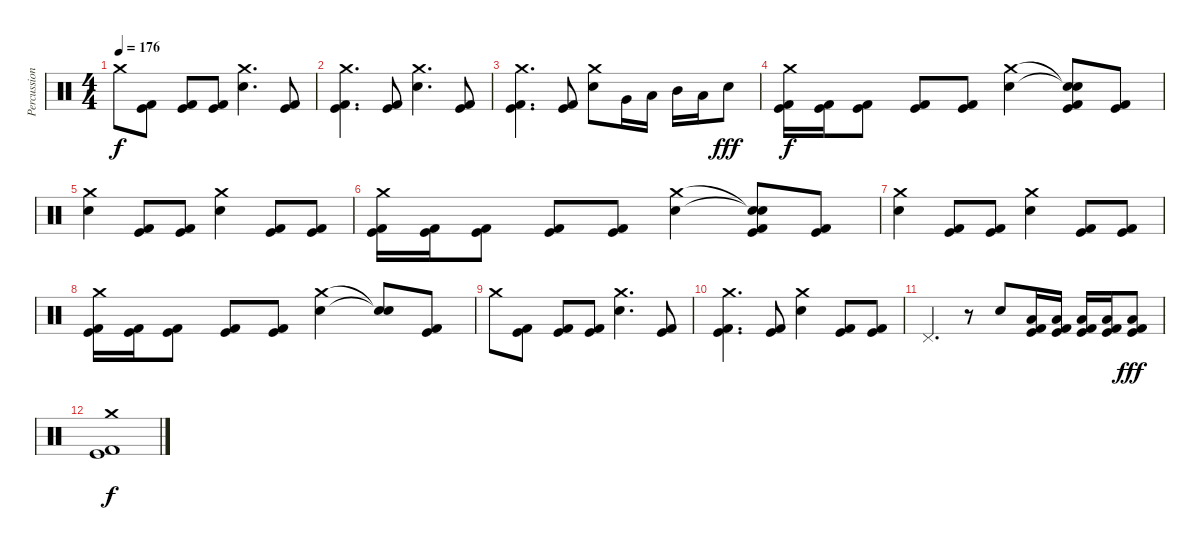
\track ("Percussions" "Percussion") {instrument percussion}
\staff {score}
\articulation defaults
\ts (4 4)
\tempo 176
\clef neutral
\ks c "Crash medium (hit)".8{dy f}
("Kick (hit)" "Kick (hit) 2").8 ("Kick (hit)" "Kick (hit) 2").8 ("Kick (hit)" "Kick (hit) 2").8 ("Crash medium (hit)" "Electric Snare (hit)").4{d} ("Kick (hit)" "Kick (hit) 2").8 |
("Crash medium (hit)" "Kick (hit)" "Kick (hit) 2").4{d} ("Kick (hit)" "Kick (hit) 2").8 ("Crash medium (hit)" "Electric Snare (hit)").4{d} ("Kick (hit)" "Kick (hit) 2").8 |
("Crash medium (hit)" "Kick (hit)" "Kick (hit) 2").4{d} ("Kick (hit)" "Kick (hit) 2").8 ("Crash medium (hit)" "Electric Snare (hit)").8 "Very Low Tom (hit)".16 "Low Tom (hit)".16 "Mid Tom (hit)".16 "Low Tom (hit)".16 "Electric Snare (hit)".8{dy fff} |
("Crash medium (hit)" "Kick (hit)" "Kick (hit) 2").16{dy f} ("Kick (hit)" "Kick (hit) 2").16 ("Kick (hit)" "Kick (hit) 2").8 ("Kick (hit)" "Kick (hit) 2").8 ("Kick (hit)" "Kick (hit) 2").8 ("Crash medium (hit)" "Electric Snare (hit)").4 ("Snare (hit)"{t} "Snare (hit)"{t} "Kick (hit)" "Kick (hit) 2").8 ("Kick (hit)" "Kick (hit) 2").8 |
("Crash medium (hit)" "Electric Snare (hit)").4 ("Kick (hit)" "Kick (hit) 2").8 ("Kick (hit)" "Kick (hit) 2").8 ("Crash medium (hit)" "Electric Snare (hit)").4 ("Kick (hit)" "Kick (hit) 2").8 ("Kick (hit)" "Kick (hit) 2").8 |
("Crash medium (hit)" "Kick (hit)" "Kick (hit) 2").16 ("Kick (hit)" "Kick (hit) 2").16 ("Kick (hit)" "Kick (hit) 2").8 ("Kick (hit)" "Kick (hit) 2").8 ("Kick (hit)" "Kick (hit) 2").8 ("Crash medium (hit)" "Electric Snare (hit)").4 ("Snare (hit)"{t} "Snare (hit)"{t} "Kick (hit)" "Kick (hit) 2").8 ("Kick (hit)" "Kick (hit) 2").8 |
("Crash medium (hit)" "Electric Snare (hit)").4 ("Kick (hit)" "Kick (hit) 2").8 ("Kick (hit)" "Kick (hit) 2").8 ("Crash medium (hit)" "Electric Snare (hit)").4 ("Kick (hit)" "Kick (hit) 2").8 ("Kick (hit)" "Kick (hit) 2").8 |
("Crash medium (hit)" "Kick (hit)" "Kick (hit) 2").16 ("Kick (hit)" "Kick (hit) 2").16 ("Kick (hit)" "Kick (hit) 2").8 ("Kick (hit)" "Kick (hit) 2").8 ("Kick (hit)" "Kick (hit) 2").8 ("Crash medium (hit)" "Electric Snare (hit)").4 ("Snare (hit)"{t} "Snare (hit)"{t}).8 ("Kick (hit)" "Kick (hit) 2").8 |
"Crash medium (hit)".8 ("Kick (hit)" "Kick (hit) 2").8 ("Kick (hit)" "Kick (hit) 2").8 ("Kick (hit)" "Kick (hit) 2").8 ("Crash medium (hit)" "Electric Snare (hit)").4{d} ("Kick (hit)" "Kick (hit) 2").8 |
("Crash medium (hit)" "Kick (hit)" "Kick (hit) 2").4{d} ("Kick (hit)" "Kick (hit) 2").8 ("Crash medium (hit)" "Electric Snare (hit)").4 ("Kick (hit)" "Kick (hit) 2").8 ("Kick (hit)" "Kick (hit) 2").8 |
"Pedal Hi-Hat (hit)".4{d} r.8 "Electric Snare (hit)".8 ("Low Tom (hit)" "Kick (hit)" "Kick (hit) 2").16 ("Low Tom (hit)" "Kick (hit)" "Kick (hit) 2").16 ("Low Floor Tom (hit)" "Kick (hit)" "Kick (hit) 2").16 ("Low Floor Tom (hit)" "Kick (hit)" "Kick (hit) 2").16 ("Low Floor Tom (hit)" "Kick (hit)" "Kick (hit) 2").8{dy fff} |
("Crash medium (hit)" "Kick (hit)" "Kick (hit) 2").1{dy f}
